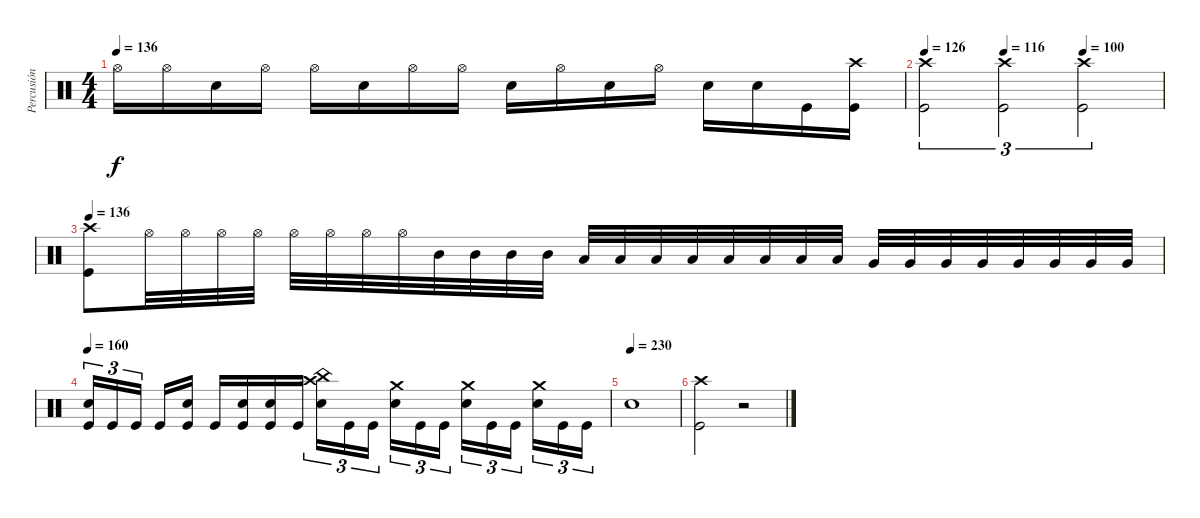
\track ("Percusión" "Percusión") {instrument percussion}
\staff {score}
\articulation defaults
\ts (4 4)
\tempo 136
\clef neutral
\ks c "Hi-Hat (open)".16{dy f} "Hi-Hat (open)".16 "Snare (hit) 2".16 "Hi-Hat (open)".16 "Hi-Hat (open)".16 "Snare (hit) 2".16 "Hi-Hat (open)".16 "Hi-Hat (open)".16 "Snare (hit) 2".16 "Hi-Hat (open)".16 "Snare (hit) 2".16 "Hi-Hat (open)".16 "Snare (hit) 2".16 "Snare (hit) 2".16 "Kick (hit)".16
("Crash high (hit)" "Kick (hit)").16 |
\tempo 126
\tempo (116 0.3333333333333333)
\tempo (100 0.6666666666666666)
("Crash high (hit)" "Kick (hit)").2{tu (3 2)} ("Crash high (hit)" "Kick (hit)").2{tu (3 2)} ("Crash high (hit)" "Kick (hit)").2{tu (3 2)} |
\tempo 136
("Crash high (hit)" "Kick (hit)").8 "Hi-Hat (open)".32 "Hi-Hat (open)".32 "Hi-Hat (open)".32 "Hi-Hat (open)".32 "Hi-Hat (open)".32 "Hi-Hat (open)".32 "Hi-Hat (open)".32 "Hi-Hat (open)".32 "Mid Tom (hit)".32 "Mid Tom (hit)".32 "Mid Tom (hit)".32 "Mid Tom (hit)".32 "Low Tom (hit)".32 "Low Tom (hit)".32 "Low Tom (hit)".32 "Low Tom (hit)".32 "Low Tom (hit)".32 "Low Tom (hit)".32 "Low Tom (hit)".32 "Low Tom (hit)".32 "Very Low Tom (hit)".32 "Very Low Tom (hit)".32 "Very Low Tom (hit)".32 "Very Low Tom (hit)".32 "Very Low Tom (hit)".32 "Very Low Tom (hit)".32 "Very Low Tom (hit)".32 "Very Low Tom (hit)".32 |
\tempo 160
("Snare (hit) 2" "Kick (hit)").16{tu (3 2)} "Kick (hit)".16{tu (3 2)} "Kick (hit)".16{tu (3 2)} "Kick (hit)".16 ("Snare (hit) 2" "Kick (hit)").16 "Kick (hit)".16 ("Snare (hit) 2" "Kick (hit)").16 ("Snare (hit) 2" "Kick (hit)").16 "Kick (hit)".16 ("China (hit)" "Crash high (hit)" "Snare (hit) 2").16{tu (3 2)} "Kick (hit)".16{tu (3 2)} "Kick (hit)".16{tu (3 2)} ("Crash medium (hit)" "Snare (hit) 2").16{tu (3 2)} "Kick (hit)".16{tu (3 2)} "Kick (hit)".16{tu (3 2)} ("Crash medium (hit)" "Snare (hit) 2").16{tu (3 2)} "Kick (hit)".16{tu (3 2)} "Kick (hit)".16{tu (3 2)} ("Crash medium (hit)" "Snare (hit) 2").16{tu (3 2)} "Kick (hit)".16{tu (3 2)} "Kick (hit)".16{tu (3 2)} |
\tempo (230)
"Snare (hit) 2".1 |
("Crash high (hit)" "Kick (hit)").2 r.2
